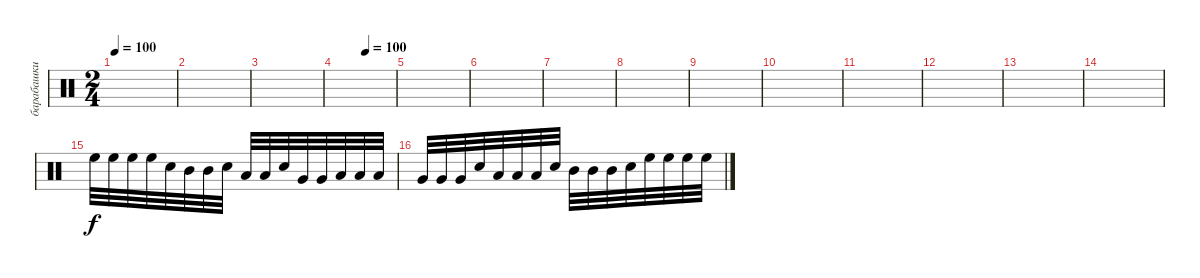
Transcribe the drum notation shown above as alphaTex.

\track ("барабашки middle" "барабашки ") {instrument percussion}
\staff {score}
\articulation defaults
\ts (2 4)
\tempo 100
\tempo 35
\tempo 100
\clef neutral
\ks c
|
|
|
\tempo (100 0.5)
|
|
|
|
|
|
|
|
|
|
|
"High Floor Tom (hit)".32 "High Floor Tom (hit)".32 "High Floor Tom (hit)".32 "High Floor Tom (hit)".32 "Electric Snare (hit)".32 "Mid Tom (hit)".32 "Mid Tom (hit)".32 "Electric Snare (hit)".32 "Low Tom (hit)".32 "Low Tom (hit)".32 "Electric Snare (hit)".32 "Very Low Tom (hit)".32 "Very Low Tom (hit)".32 "Low Floor Tom (hit)".32 "Low Floor Tom (hit)".32 "Low Floor Tom (hit)".32 |
"Very Low Tom (hit)".32 "Very Low Tom (hit)".32 "Very Low Tom (hit)".32 "Electric Snare (hit)".32 "Low Tom (hit)".32 "Low Tom (hit)".32 "Low Tom (hit)".32 "Electric Snare (hit)".32 "Mid Tom (hit)".32 "Mid Tom (hit)".32 "Mid Tom (hit)".32 "Snare (hit) 2".32 "High Floor Tom (hit)".32 "High Floor Tom (hit)".32 "High Floor Tom (hit)".32 "High Floor Tom (hit)".32
